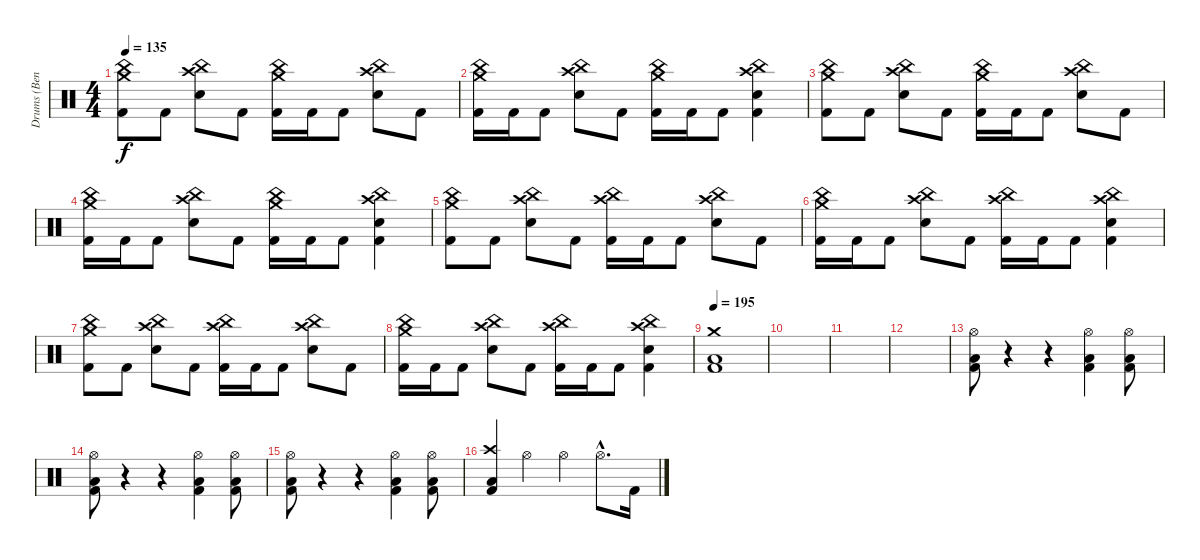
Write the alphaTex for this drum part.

\track ("Drums (Ben)" "Drums (Ben") {instrument percussion}
\staff {score}
\articulation defaults
\ts (4 4)
\tempo 135
\clef neutral
\ks c
("Crash medium (hit)" "China (hit)" "Kick (hit) 2").8{dy f} "Kick (hit) 2".8 ("Crash high (hit)" "China (hit)" "Snare (hit) 2").8 "Kick (hit) 2".8 ("Crash medium (hit)" "China (hit)" "Kick (hit) 2").16 "Kick (hit) 2".16 "Kick (hit) 2".8 ("Crash high (hit)" "China (hit)" "Snare (hit) 2").8 "Kick (hit) 2".8 |
("Crash medium (hit)" "China (hit)" "Kick (hit) 2").16 "Kick (hit) 2".16 "Kick (hit) 2".8 ("Crash high (hit)" "China (hit)" "Snare (hit) 2").8 "Kick (hit) 2".8 ("Crash medium (hit)" "China (hit)" "Kick (hit) 2").16 "Kick (hit) 2".16 "Kick (hit) 2".8 ("Crash high (hit)" "China (hit)" "Snare (hit) 2" "Kick (hit) 2").4 |
("Crash medium (hit)" "China (hit)" "Kick (hit) 2").8 "Kick (hit) 2".8 ("Crash high (hit)" "China (hit)" "Snare (hit) 2").8 "Kick (hit) 2".8 ("Crash medium (hit)" "China (hit)" "Kick (hit) 2").16 "Kick (hit) 2".16 "Kick (hit) 2".8 ("Crash high (hit)" "China (hit)" "Snare (hit) 2").8 "Kick (hit) 2".8 |
("Crash medium (hit)" "China (hit)" "Kick (hit) 2").16 "Kick (hit) 2".16 "Kick (hit) 2".8 ("Crash high (hit)" "China (hit)" "Snare (hit) 2").8 "Kick (hit) 2".8 ("Crash medium (hit)" "China (hit)" "Kick (hit) 2").16 "Kick (hit) 2".16 "Kick (hit) 2".8 ("Crash high (hit)" "China (hit)" "Snare (hit) 2" "Kick (hit) 2").4 |
("Crash medium (hit)" "China (hit)" "Kick (hit) 2").8 "Kick (hit) 2".8 ("Crash high (hit)" "China (hit)" "Snare (hit) 2").8 "Kick (hit) 2".8 ("Crash high (hit)" "China (hit)" "Kick (hit) 2").16 "Kick (hit) 2".16 "Kick (hit) 2".8 ("Crash high (hit)" "China (hit)" "Snare (hit) 2").8 "Kick (hit) 2".8 |
("Crash medium (hit)" "China (hit)" "Kick (hit) 2").16 "Kick (hit) 2".16 "Kick (hit) 2".8 ("Crash high (hit)" "China (hit)" "Snare (hit) 2").8 "Kick (hit) 2".8 ("Crash high (hit)" "China (hit)" "Kick (hit) 2").16 "Kick (hit) 2".16 "Kick (hit) 2".8 ("Crash high (hit)" "China (hit)" "Snare (hit) 2" "Kick (hit) 2").4 |
("Crash medium (hit)" "China (hit)" "Kick (hit) 2").8 "Kick (hit) 2".8 ("Crash high (hit)" "China (hit)" "Snare (hit) 2").8 "Kick (hit) 2".8 ("Crash high (hit)" "China (hit)" "Kick (hit) 2").16 "Kick (hit) 2".16 "Kick (hit) 2".8 ("Crash high (hit)" "China (hit)" "Snare (hit) 2").8 "Kick (hit) 2".8 |
("Crash medium (hit)" "China (hit)" "Kick (hit) 2").16 "Kick (hit) 2".16 "Kick (hit) 2".8 ("Crash high (hit)" "China (hit)" "Snare (hit) 2").8 "Kick (hit) 2".8 ("Crash high (hit)" "China (hit)" "Kick (hit) 2").16 "Kick (hit) 2".16 "Kick (hit) 2".8 ("Crash high (hit)" "China (hit)" "Snare (hit) 2" "Kick (hit) 2").4 |
\tempo 195
("Crash medium (hit)" "Low Floor Tom (hit)" "Kick (hit) 2").1 |
|
|
|
("Hi-Hat (open)" "Low Floor Tom (hit)" "Kick (hit) 2").8 r.4 r.4 ("Hi-Hat (open)" "Low Floor Tom (hit)" "Kick (hit) 2").4 ("Hi-Hat (open)" "Low Floor Tom (hit)" "Kick (hit) 2").8 |
("Hi-Hat (open)" "Low Floor Tom (hit)" "Kick (hit) 2").8 r.4 r.4 ("Hi-Hat (open)" "Low Floor Tom (hit)" "Kick (hit) 2").4 ("Hi-Hat (open)" "Low Floor Tom (hit)" "Kick (hit) 2").8 |
("Hi-Hat (open)" "Low Floor Tom (hit)" "Kick (hit) 2").8 r.4 r.4 ("Hi-Hat (open)" "Low Floor Tom (hit)" "Kick (hit) 2").4 ("Hi-Hat (open)" "Low Floor Tom (hit)" "Kick (hit) 2").8 |
("Crash high (hit)" "Low Floor Tom (hit)" "Kick (hit) 2").4 "Hi-Hat (open)".4 "Hi-Hat (open)".4 "Hi-Hat (open)"{hac}.8{d} "Kick (hit) 2".16
